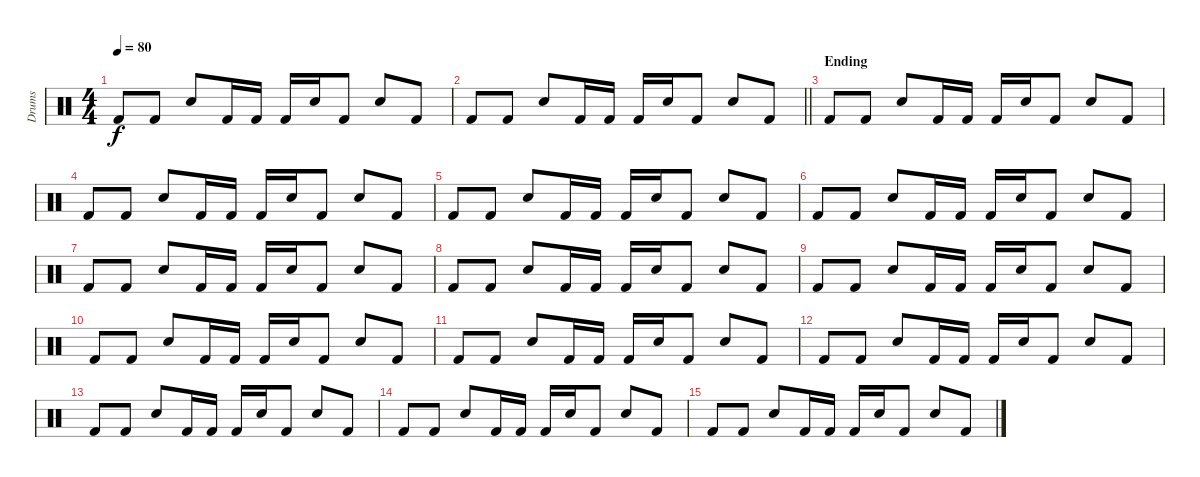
\track ("Drums" "Drums") {instrument percussion}
\staff
\articulation defaults
\ts (4 4)
\tempo 80
\clef neutral
\ks c "Kick (hit) 2".8{dy f} "Kick (hit) 2".8 "Snare (hit) 2".8 "Kick (hit) 2".16 "Kick (hit) 2".16 "Kick (hit) 2".16 "Snare (hit) 2".16 "Kick (hit) 2".8 "Snare (hit) 2".8 "Kick (hit) 2".8
|
\barLineRight lightlight "Kick (hit) 2".8 "Kick (hit) 2".8 "Snare (hit) 2".8 "Kick (hit) 2".16 "Kick (hit) 2".16 "Kick (hit) 2".16 "Snare (hit) 2".16 "Kick (hit) 2".8 "Snare (hit) 2".8 "Kick (hit) 2".8
|
\section ("" "Ending")
"Kick (hit) 2".8 "Kick (hit) 2".8 "Snare (hit) 2".8 "Kick (hit) 2".16 "Kick (hit) 2".16 "Kick (hit) 2".16 "Snare (hit) 2".16 "Kick (hit) 2".8 "Snare (hit) 2".8 "Kick (hit) 2".8 |
"Kick (hit) 2".8 "Kick (hit) 2".8 "Snare (hit) 2".8 "Kick (hit) 2".16 "Kick (hit) 2".16 "Kick (hit) 2".16 "Snare (hit) 2".16 "Kick (hit) 2".8 "Snare (hit) 2".8 "Kick (hit) 2".8 |
"Kick (hit) 2".8 "Kick (hit) 2".8 "Snare (hit) 2".8 "Kick (hit) 2".16 "Kick (hit) 2".16 "Kick (hit) 2".16 "Snare (hit) 2".16 "Kick (hit) 2".8 "Snare (hit) 2".8 "Kick (hit) 2".8 |
"Kick (hit) 2".8 "Kick (hit) 2".8 "Snare (hit) 2".8 "Kick (hit) 2".16 "Kick (hit) 2".16 "Kick (hit) 2".16 "Snare (hit) 2".16 "Kick (hit) 2".8 "Snare (hit) 2".8 "Kick (hit) 2".8 |
"Kick (hit) 2".8 "Kick (hit) 2".8 "Snare (hit) 2".8 "Kick (hit) 2".16 "Kick (hit) 2".16 "Kick (hit) 2".16 "Snare (hit) 2".16 "Kick (hit) 2".8 "Snare (hit) 2".8 "Kick (hit) 2".8 |
"Kick (hit) 2".8 "Kick (hit) 2".8 "Snare (hit) 2".8 "Kick (hit) 2".16 "Kick (hit) 2".16 "Kick (hit) 2".16 "Snare (hit) 2".16 "Kick (hit) 2".8 "Snare (hit) 2".8 "Kick (hit) 2".8 |
"Kick (hit) 2".8 "Kick (hit) 2".8 "Snare (hit) 2".8 "Kick (hit) 2".16 "Kick (hit) 2".16 "Kick (hit) 2".16 "Snare (hit) 2".16 "Kick (hit) 2".8 "Snare (hit) 2".8 "Kick (hit) 2".8 |
"Kick (hit) 2".8 "Kick (hit) 2".8 "Snare (hit) 2".8 "Kick (hit) 2".16 "Kick (hit) 2".16 "Kick (hit) 2".16 "Snare (hit) 2".16 "Kick (hit) 2".8 "Snare (hit) 2".8 "Kick (hit) 2".8 |
"Kick (hit) 2".8 "Kick (hit) 2".8 "Snare (hit) 2".8 "Kick (hit) 2".16 "Kick (hit) 2".16 "Kick (hit) 2".16 "Snare (hit) 2".16 "Kick (hit) 2".8 "Snare (hit) 2".8 "Kick (hit) 2".8 |
"Kick (hit) 2".8 "Kick (hit) 2".8 "Snare (hit) 2".8 "Kick (hit) 2".16 "Kick (hit) 2".16 "Kick (hit) 2".16 "Snare (hit) 2".16 "Kick (hit) 2".8 "Snare (hit) 2".8 "Kick (hit) 2".8 |
"Kick (hit) 2".8 "Kick (hit) 2".8 "Snare (hit) 2".8 "Kick (hit) 2".16 "Kick (hit) 2".16 "Kick (hit) 2".16 "Snare (hit) 2".16 "Kick (hit) 2".8 "Snare (hit) 2".8 "Kick (hit) 2".8 |
"Kick (hit) 2".8 "Kick (hit) 2".8 "Snare (hit) 2".8 "Kick (hit) 2".16 "Kick (hit) 2".16 "Kick (hit) 2".16 "Snare (hit) 2".16 "Kick (hit) 2".8 "Snare (hit) 2".8 "Kick (hit) 2".8 |
"Kick (hit) 2".8 "Kick (hit) 2".8 "Snare (hit) 2".8 "Kick (hit) 2".16 "Kick (hit) 2".16 "Kick (hit) 2".16 "Snare (hit) 2".16 "Kick (hit) 2".8 "Snare (hit) 2".8 "Kick (hit) 2".8
